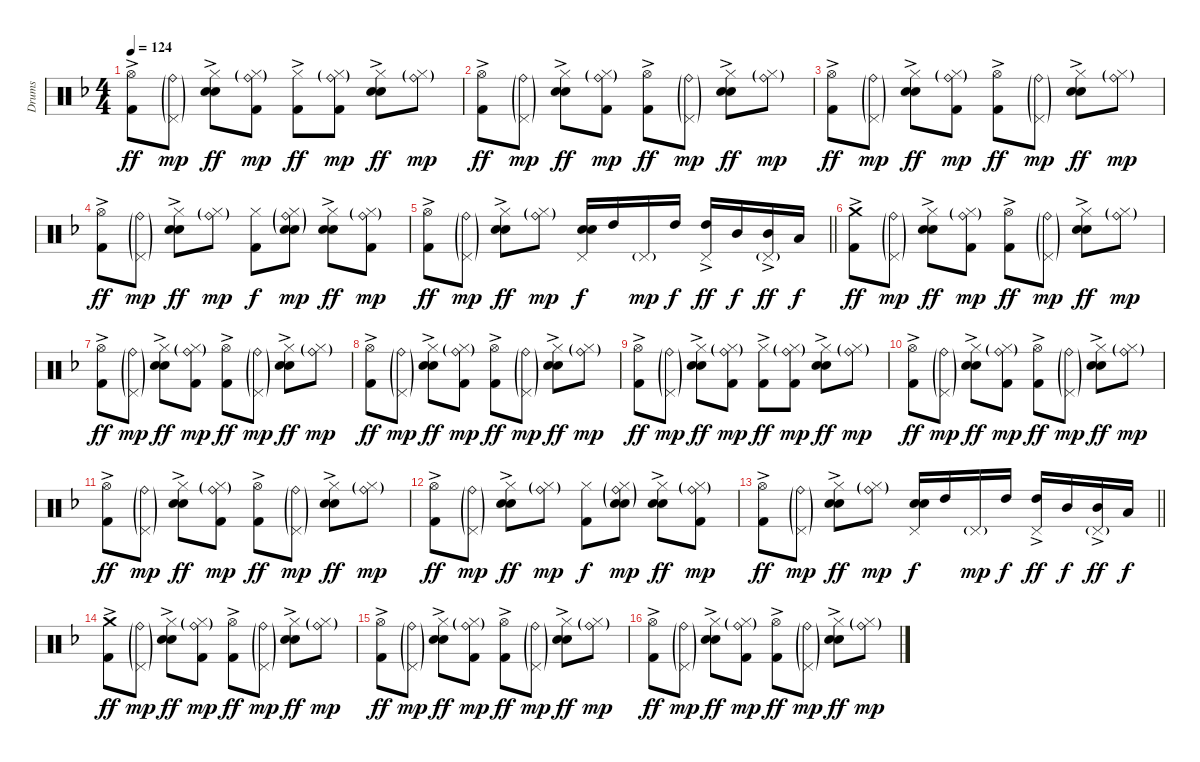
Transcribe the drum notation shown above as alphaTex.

\track ("Drums" "Drums") {instrument percussion}
\staff {score}
\articulation defaults
\ts (4 4)
\tempo 124
\clef neutral
\ks f
("Hi-Hat (open)" "Kick (hit) 2"{ac}).8{dy ff} ("Ride (bell)"{g} "Pedal Hi-Hat (hit)"{g}).8{dy mp} ("Hi-Hat (closed)" "Electric Snare (hit)"{ac} "Snare (hit) 2").8{dy ff} ("Hi-Hat (closed)"{g} "Ride (bell)"{g} "Kick (hit) 2").8{dy mp} ("Hi-Hat (closed)" "Kick (hit) 2"{ac}).8{dy ff} ("Hi-Hat (closed)"{g} "Ride (bell)"{g} "Kick (hit) 2").8{dy mp} ("Hi-Hat (closed)" "Electric Snare (hit)"{ac} "Snare (hit) 2").8{dy ff} ("Hi-Hat (closed)"{g} "Ride (bell)"{g}).8{dy mp} |
("Hi-Hat (open)" "Kick (hit) 2"{ac}).8{dy ff} ("Ride (bell)"{g} "Pedal Hi-Hat (hit)"{g}).8{dy mp} ("Hi-Hat (closed)" "Electric Snare (hit)"{ac} "Snare (hit) 2").8{dy ff} ("Hi-Hat (closed)"{g} "Ride (bell)"{g} "Kick (hit) 2").8{dy mp} ("Hi-Hat (open)" "Kick (hit) 2"{ac}).8{dy ff} ("Ride (bell)"{g} "Pedal Hi-Hat (hit)"{g}).8{dy mp} ("Hi-Hat (closed)" "Electric Snare (hit)"{ac} "Snare (hit) 2").8{dy ff} ("Hi-Hat (closed)"{g} "Ride (bell)"{g}).8{dy mp} |
("Hi-Hat (open)" "Kick (hit) 2"{ac}).8{dy ff} ("Ride (bell)"{g} "Pedal Hi-Hat (hit)"{g}).8{dy mp} ("Hi-Hat (closed)" "Electric Snare (hit)"{ac} "Snare (hit) 2").8{dy ff} ("Hi-Hat (closed)"{g} "Ride (bell)"{g} "Kick (hit) 2").8{dy mp} ("Hi-Hat (open)" "Kick (hit) 2"{ac}).8{dy ff} ("Ride (bell)"{g} "Pedal Hi-Hat (hit)"{g}).8{dy mp} ("Hi-Hat (closed)" "Electric Snare (hit)"{ac} "Snare (hit) 2").8{dy ff} ("Hi-Hat (closed)"{g} "Ride (bell)"{g}).8{dy mp} |
("Hi-Hat (open)" "Kick (hit) 2"{ac}).8{dy ff} ("Ride (bell)"{g} "Pedal Hi-Hat (hit)"{g}).8{dy mp} ("Hi-Hat (closed)" "Electric Snare (hit)"{ac} "Snare (hit) 2").8{dy ff} ("Hi-Hat (closed)"{g} "Ride (bell)"{g}).8{dy mp} ("Hi-Hat (closed)" "Kick (hit) 2").8{dy f} ("Hi-Hat (closed)"{g} "Ride (bell)"{g} "Electric Snare (hit)"{g} "Snare (hit) 2").8{dy mp} ("Hi-Hat (closed)" "Electric Snare (hit)"{ac} "Snare (hit) 2").8{dy ff} ("Hi-Hat (closed)"{g} "Ride (bell)"{g} "Kick (hit) 2").8{dy mp} |
\barLineRight lightlight
("Hi-Hat (open)" "Kick (hit) 2"{ac}).8{dy ff} ("Ride (bell)"{g} "Pedal Hi-Hat (hit)"{g}).8{dy mp} ("Hi-Hat (closed)" "Electric Snare (hit)"{ac} "Snare (hit) 2").8{dy ff} ("Hi-Hat (closed)"{g} "Ride (bell)"{g}).8{dy mp} ("Pedal Hi-Hat (hit)" "Electric Snare (hit)" "Snare (hit) 2").16{dy f} "High Tom (hit)".16 "Pedal Hi-Hat (hit)"{g}.16{dy mp} "High Tom (hit)".16{dy f} ("Pedal Hi-Hat (hit)" "High Tom (hit)"{ac}).16{dy ff} "Mid Tom (hit)".16{dy f} ("Pedal Hi-Hat (hit)"{g} "Mid Tom (hit)"{ac}).16{dy ff} "Low Tom (hit)".16{dy f} |
("Crash medium (hit)" "Kick (hit) 2"{ac}).8{dy ff} ("Ride (bell)"{g} "Pedal Hi-Hat (hit)"{g}).8{dy mp} ("Hi-Hat (closed)" "Electric Snare (hit)"{ac} "Snare (hit) 2").8{dy ff} ("Hi-Hat (closed)"{g} "Ride (bell)"{g} "Kick (hit) 2").8{dy mp} ("Hi-Hat (open)" "Kick (hit) 2"{ac}).8{dy ff} ("Ride (bell)"{g} "Pedal Hi-Hat (hit)"{g}).8{dy mp} ("Hi-Hat (closed)" "Electric Snare (hit)"{ac} "Snare (hit) 2").8{dy ff} ("Hi-Hat (closed)"{g} "Ride (bell)"{g}).8{dy mp} |
("Hi-Hat (open)" "Kick (hit) 2"{ac}).8{dy ff} ("Ride (bell)"{g} "Pedal Hi-Hat (hit)"{g}).8{dy mp} ("Hi-Hat (closed)" "Electric Snare (hit)"{ac} "Snare (hit) 2").8{dy ff} ("Hi-Hat (closed)"{g} "Ride (bell)"{g} "Kick (hit) 2").8{dy mp} ("Hi-Hat (open)" "Kick (hit) 2"{ac}).8{dy ff} ("Ride (bell)"{g} "Pedal Hi-Hat (hit)"{g}).8{dy mp} ("Hi-Hat (closed)" "Electric Snare (hit)"{ac} "Snare (hit) 2").8{dy ff} ("Hi-Hat (closed)"{g} "Ride (bell)"{g}).8{dy mp} |
("Hi-Hat (open)" "Kick (hit) 2"{ac}).8{dy ff} ("Ride (bell)"{g} "Pedal Hi-Hat (hit)"{g}).8{dy mp} ("Hi-Hat (closed)" "Electric Snare (hit)"{ac} "Snare (hit) 2").8{dy ff} ("Hi-Hat (closed)"{g} "Ride (bell)"{g} "Kick (hit) 2").8{dy mp} ("Hi-Hat (open)" "Kick (hit) 2"{ac}).8{dy ff} ("Ride (bell)"{g} "Pedal Hi-Hat (hit)"{g}).8{dy mp} ("Hi-Hat (closed)" "Electric Snare (hit)"{ac} "Snare (hit) 2").8{dy ff} ("Hi-Hat (closed)"{g} "Ride (bell)"{g}).8{dy mp} |
("Hi-Hat (open)" "Kick (hit) 2"{ac}).8{dy ff} ("Ride (bell)"{g} "Pedal Hi-Hat (hit)"{g}).8{dy mp} ("Hi-Hat (closed)" "Electric Snare (hit)"{ac} "Snare (hit) 2").8{dy ff} ("Hi-Hat (closed)"{g} "Ride (bell)"{g} "Kick (hit) 2").8{dy mp} ("Hi-Hat (closed)" "Kick (hit) 2"{ac}).8{dy ff} ("Hi-Hat (closed)"{g} "Ride (bell)"{g} "Kick (hit) 2").8{dy mp} ("Hi-Hat (closed)" "Electric Snare (hit)"{ac} "Snare (hit) 2").8{dy ff} ("Hi-Hat (closed)"{g} "Ride (bell)"{g}).8{dy mp} |
("Hi-Hat (open)" "Kick (hit) 2"{ac}).8{dy ff} ("Ride (bell)"{g} "Pedal Hi-Hat (hit)"{g}).8{dy mp} ("Hi-Hat (closed)" "Electric Snare (hit)"{ac} "Snare (hit) 2").8{dy ff} ("Hi-Hat (closed)"{g} "Ride (bell)"{g} "Kick (hit) 2").8{dy mp} ("Hi-Hat (open)" "Kick (hit) 2"{ac}).8{dy ff} ("Ride (bell)"{g} "Pedal Hi-Hat (hit)"{g}).8{dy mp} ("Hi-Hat (closed)" "Electric Snare (hit)"{ac} "Snare (hit) 2").8{dy ff} ("Hi-Hat (closed)"{g} "Ride (bell)"{g}).8{dy mp} |
("Hi-Hat (open)" "Kick (hit) 2"{ac}).8{dy ff} ("Ride (bell)"{g} "Pedal Hi-Hat (hit)"{g}).8{dy mp} ("Hi-Hat (closed)" "Electric Snare (hit)"{ac} "Snare (hit) 2").8{dy ff} ("Hi-Hat (closed)"{g} "Ride (bell)"{g} "Kick (hit) 2").8{dy mp} ("Hi-Hat (open)" "Kick (hit) 2"{ac}).8{dy ff} ("Ride (bell)"{g} "Pedal Hi-Hat (hit)"{g}).8{dy mp} ("Hi-Hat (closed)" "Electric Snare (hit)"{ac} "Snare (hit) 2").8{dy ff} ("Hi-Hat (closed)"{g} "Ride (bell)"{g}).8{dy mp} |
("Hi-Hat (open)" "Kick (hit) 2"{ac}).8{dy ff} ("Ride (bell)"{g} "Pedal Hi-Hat (hit)"{g}).8{dy mp} ("Hi-Hat (closed)" "Electric Snare (hit)"{ac} "Snare (hit) 2").8{dy ff} ("Hi-Hat (closed)"{g} "Ride (bell)"{g}).8{dy mp} ("Hi-Hat (closed)" "Kick (hit) 2").8{dy f} ("Hi-Hat (closed)"{g} "Ride (bell)"{g} "Electric Snare (hit)"{g} "Snare (hit) 2").8{dy mp} ("Hi-Hat (closed)" "Electric Snare (hit)"{ac} "Snare (hit) 2").8{dy ff} ("Hi-Hat (closed)"{g} "Ride (bell)"{g} "Kick (hit) 2").8{dy mp} |
\barLineRight lightlight
("Hi-Hat (open)" "Kick (hit) 2"{ac}).8{dy ff} ("Ride (bell)"{g} "Pedal Hi-Hat (hit)"{g}).8{dy mp} ("Hi-Hat (closed)" "Electric Snare (hit)"{ac} "Snare (hit) 2").8{dy ff} ("Hi-Hat (closed)"{g} "Ride (bell)"{g}).8{dy mp} ("Pedal Hi-Hat (hit)" "Electric Snare (hit)" "Snare (hit) 2").16{dy f} "High Tom (hit)".16 "Pedal Hi-Hat (hit)"{g}.16{dy mp} "High Tom (hit)".16{dy f} ("Pedal Hi-Hat (hit)" "High Tom (hit)"{ac}).16{dy ff} "Mid Tom (hit)".16{dy f} ("Pedal Hi-Hat (hit)"{g} "Mid Tom (hit)"{ac}).16{dy ff} "Low Tom (hit)".16{dy f} |
("Crash medium (hit)" "Kick (hit) 2"{ac}).8{dy ff} ("Ride (bell)"{g} "Pedal Hi-Hat (hit)"{g}).8{dy mp} ("Hi-Hat (closed)" "Electric Snare (hit)"{ac} "Snare (hit) 2").8{dy ff} ("Hi-Hat (closed)"{g} "Ride (bell)"{g} "Kick (hit) 2").8{dy mp} ("Hi-Hat (open)" "Kick (hit) 2"{ac}).8{dy ff} ("Ride (bell)"{g} "Pedal Hi-Hat (hit)"{g}).8{dy mp} ("Hi-Hat (closed)" "Electric Snare (hit)"{ac} "Snare (hit) 2").8{dy ff} ("Hi-Hat (closed)"{g} "Ride (bell)"{g}).8{dy mp} |
("Hi-Hat (open)" "Kick (hit) 2"{ac}).8{dy ff} ("Ride (bell)"{g} "Pedal Hi-Hat (hit)"{g}).8{dy mp} ("Hi-Hat (closed)" "Electric Snare (hit)"{ac} "Snare (hit) 2").8{dy ff} ("Hi-Hat (closed)"{g} "Ride (bell)"{g} "Kick (hit) 2").8{dy mp} ("Hi-Hat (open)" "Kick (hit) 2"{ac}).8{dy ff} ("Ride (bell)"{g} "Pedal Hi-Hat (hit)"{g}).8{dy mp} ("Hi-Hat (closed)" "Electric Snare (hit)"{ac} "Snare (hit) 2").8{dy ff} ("Hi-Hat (closed)"{g} "Ride (bell)"{g}).8{dy mp} |
("Hi-Hat (open)" "Kick (hit) 2"{ac}).8{dy ff} ("Ride (bell)"{g} "Pedal Hi-Hat (hit)"{g}).8{dy mp} ("Hi-Hat (closed)" "Electric Snare (hit)"{ac} "Snare (hit) 2").8{dy ff} ("Hi-Hat (closed)"{g} "Ride (bell)"{g} "Kick (hit) 2").8{dy mp} ("Hi-Hat (open)" "Kick (hit) 2"{ac}).8{dy ff} ("Ride (bell)"{g} "Pedal Hi-Hat (hit)"{g}).8{dy mp} ("Hi-Hat (closed)" "Electric Snare (hit)"{ac} "Snare (hit) 2").8{dy ff} ("Hi-Hat (closed)"{g} "Ride (bell)"{g}).8{dy mp}
